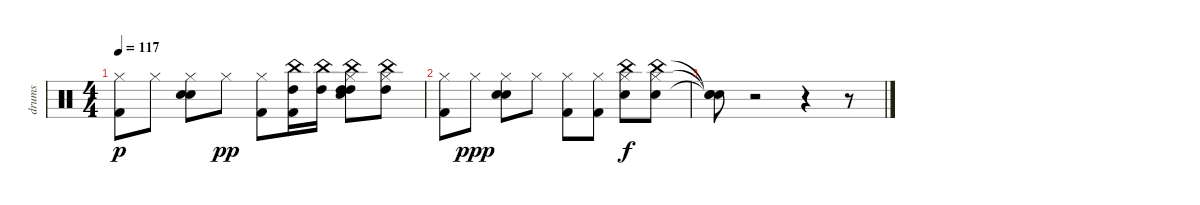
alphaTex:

\track ("drums" "drums") {instrument percussion}
\staff {score}
\articulation defaults
\ts (4 4)
\tempo 117
\clef neutral
\ks c
("Kick (hit) 2" "Hi-Hat (closed)").8{dy p} "Hi-Hat (closed)".8 ("Hi-Hat (closed)" "Electric Snare (hit)" "Electric Snare (hit)").8 "Hi-Hat (closed)".8{dy pp} ("Kick (hit) 2" "Hi-Hat (closed)").8 ("Kick (hit) 2" "China (hit)" "High Tom (hit)").16 ("China (hit)" "High Tom (hit)").16 ("China (hit)" "High Tom (hit)" "Hi-Hat (closed)" "High Tom (hit)" "Electric Snare (hit)").8 ("China (hit)" "High Tom (hit)" "Hi-Hat (closed)").8 |
("Kick (hit) 2" "Hi-Hat (closed)").8 "Hi-Hat (closed)".8{dy ppp} ("Hi-Hat (closed)" "Electric Snare (hit)" "Electric Snare (hit)").8 "Hi-Hat (closed)".8 ("Kick (hit) 2" "Hi-Hat (closed)").8 ("Kick (hit) 2" "Hi-Hat (closed)").8 ("Hi-Hat (closed)" "China (hit)" "Electric Snare (hit)").8{dy f} ("China (hit)" "Electric Snare (hit)" "Hi-Hat (closed)").8 |
("Snare (hit)"{t} "Snare (hit)"{t} "Snare (hit)"{t}).8 r.2 r.4 r.8
